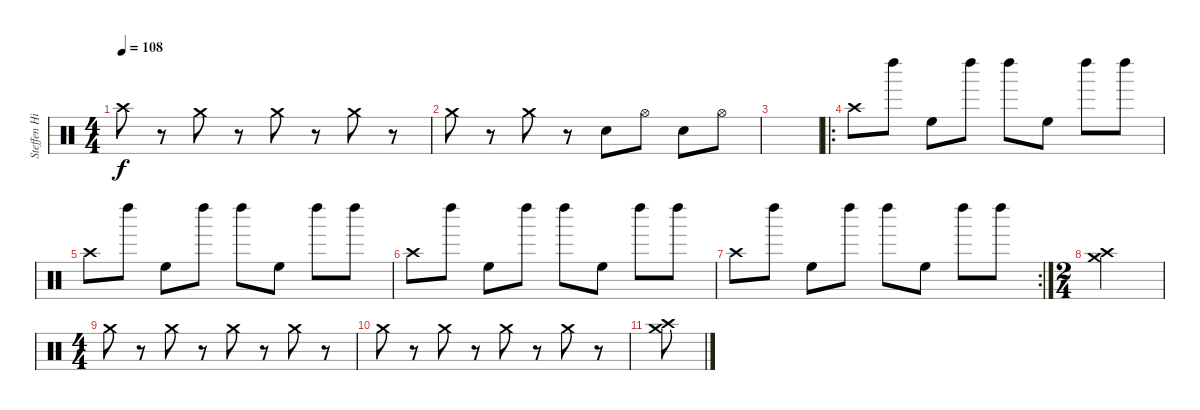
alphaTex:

\track ("Steffen Highhead" "Steffen Hi") {instrument percussion}
\staff {score}
\articulation defaults
\ts (4 4)
\tempo 108
\clef neutral
\ks c "Crash high (hit)".8{dy f}
r.8 "Crash medium (hit)".8 r.8 "Crash medium (hit)".8 r.8 "Crash medium (hit)".8 r.8 |
"Crash medium (hit)".8 r.8 "Crash medium (hit)".8 r.8 "Electric Snare (hit)".8 "Hi-Hat (open)".8 "Electric Snare (hit)".8 "Hi-Hat (open)".8 |
|
\ro "Crash high (hit)".8 "Left Maraca (hit)".8 "High Floor Tom (hit)".8 "Left Maraca (hit)".8 "Left Maraca (hit)".8 "High Floor Tom (hit)".8 "Left Maraca (hit)".8 "Left Maraca (hit)".8
|
"Crash high (hit)".8 "Left Maraca (hit)".8 "High Floor Tom (hit)".8 "Left Maraca (hit)".8 "Left Maraca (hit)".8 "High Floor Tom (hit)".8 "Left Maraca (hit)".8 "Left Maraca (hit)".8 |
"Crash high (hit)".8 "Left Maraca (hit)".8 "High Floor Tom (hit)".8 "Left Maraca (hit)".8 "Left Maraca (hit)".8 "High Floor Tom (hit)".8 "Left Maraca (hit)".8 "Left Maraca (hit)".8 |
\rc 2 "Crash high (hit)".8 "Left Maraca (hit)".8 "High Floor Tom (hit)".8 "Left Maraca (hit)".8 "Left Maraca (hit)".8 "High Floor Tom (hit)".8 "Left Maraca (hit)".8 "Left Maraca (hit)".8
|
\ts (2 4)
("Crash high (hit)" "Crash medium (hit)").2 |
\ts (4 4)
"Crash medium (hit)".8 r.8 "Crash medium (hit)".8 r.8 "Crash medium (hit)".8 r.8 "Crash medium (hit)".8 r.8 |
"Crash medium (hit)".8 r.8 "Crash medium (hit)".8 r.8 "Crash medium (hit)".8 r.8 "Crash medium (hit)".8 r.8 |
("Crash high (hit)" "Crash medium (hit)").8
